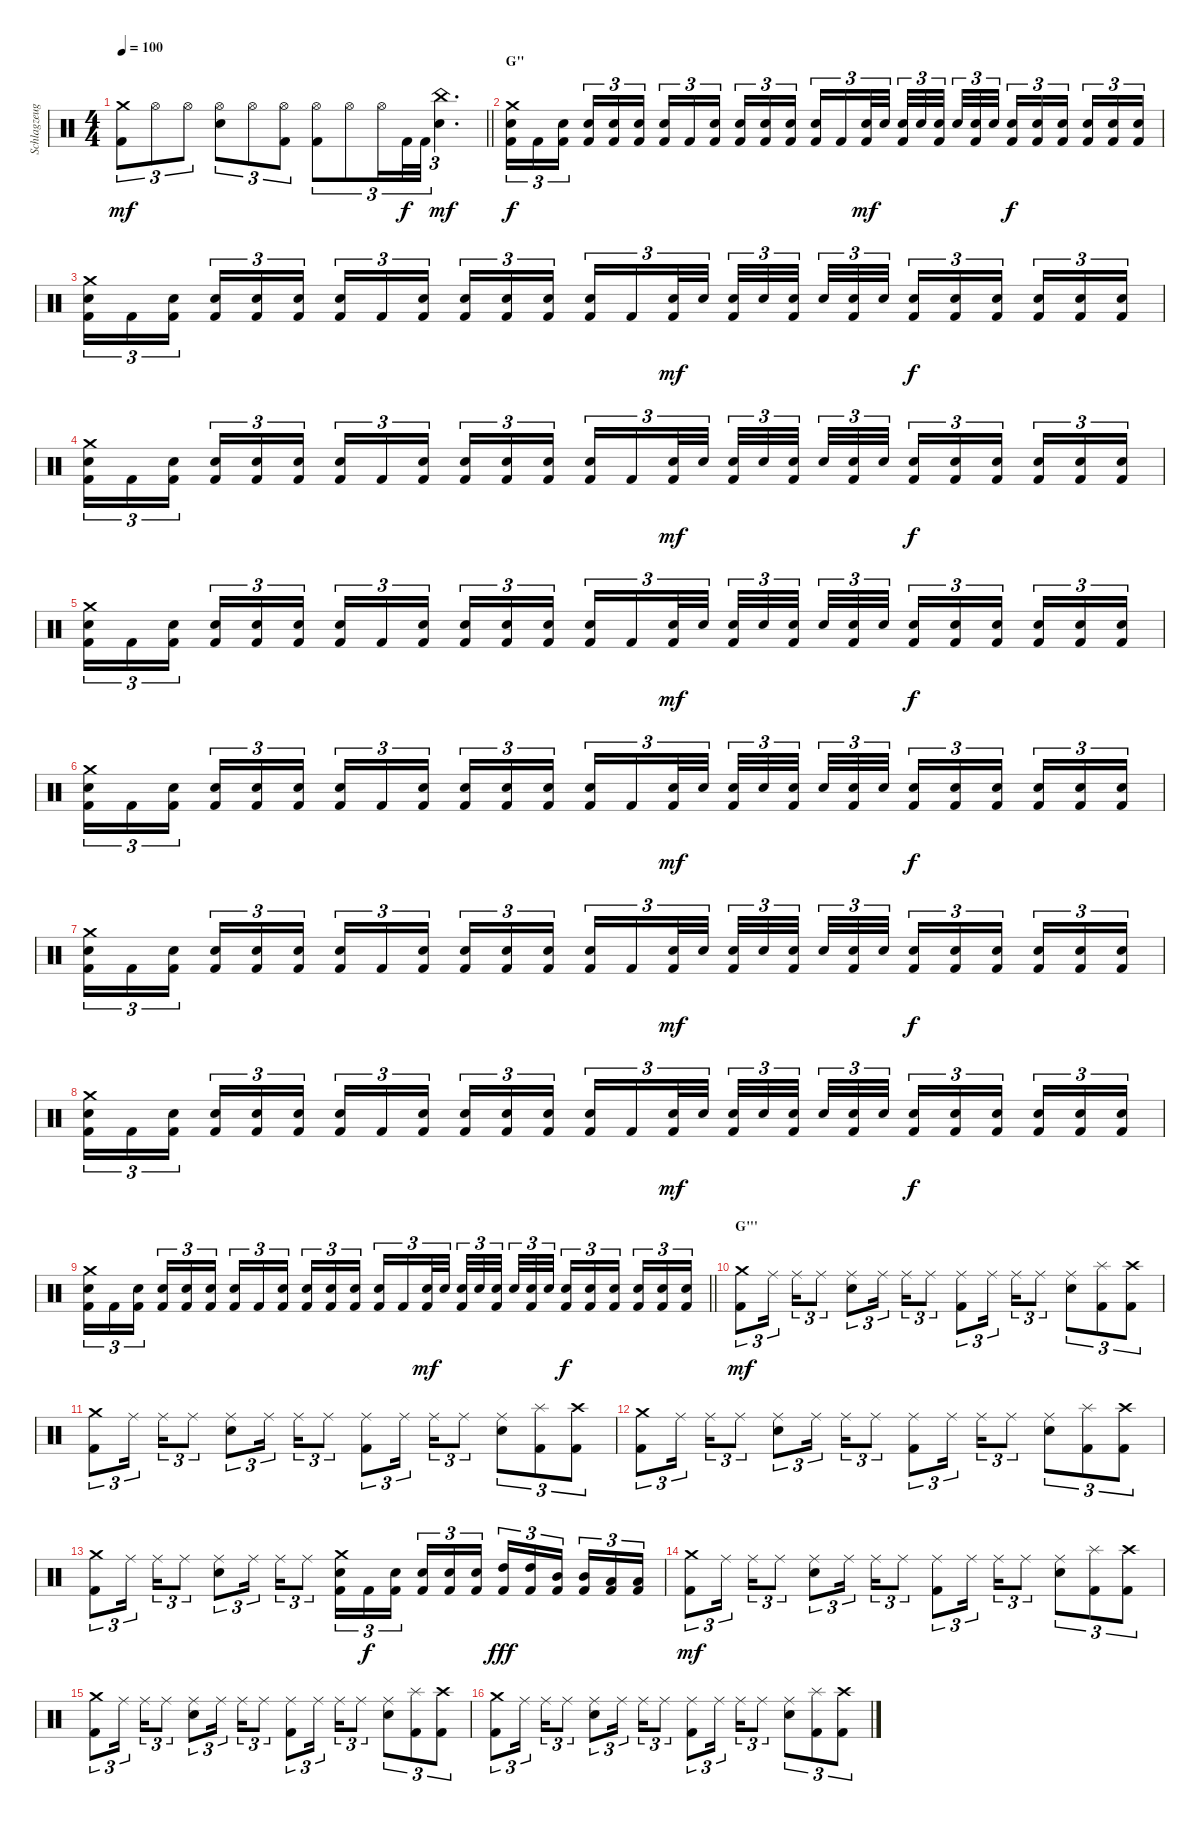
\track ("Schlagzeug" "Schlagzeug") {instrument percussion}
\staff {score}
\articulation defaults
\ts (4 4)
\tempo 100
\clef neutral
\barLineRight lightlight
\ks c
("Crash medium (hit)" "Kick (hit) 2").8{tu (3 2) dy mf} "Hi-Hat (open)".8{tu (3 2)} "Hi-Hat (open)".8{tu (3 2)} ("Hi-Hat (open)" "Electric Snare (hit)").8{tu (3 2)} "Hi-Hat (open)".8{tu (3 2)} ("Hi-Hat (open)" "Kick (hit) 2").8{tu (3 2)} ("Hi-Hat (open)" "Kick (hit) 2").8{tu (3 2)} "Hi-Hat (open)".8{tu (3 2)} "Hi-Hat (open)".16{tu (3 2)} "Kick (hit) 2".32{tu (3 2) dy f} "Kick (hit) 2".32{tu (3 2)} ("China (hit)" "Electric Snare (hit)").4{d tu (3 2) dy mf} |
\section ("" "G''")
("Crash medium (hit)" "Electric Snare (hit)" "Kick (hit) 2").16{tu (3 2) dy f} "Kick (hit) 2".16{tu (3 2)} ("Electric Snare (hit)" "Kick (hit) 2").16{tu (3 2) beam splitsecondary} ("Electric Snare (hit)" "Kick (hit) 2").16{tu (3 2)} ("Electric Snare (hit)" "Kick (hit) 2").16{tu (3 2)} ("Electric Snare (hit)" "Kick (hit) 2").16{tu (3 2)} ("Electric Snare (hit)" "Kick (hit) 2").16{tu (3 2)} "Kick (hit) 2".16{tu (3 2)} ("Electric Snare (hit)" "Kick (hit) 2").16{tu (3 2) beam splitsecondary} ("Electric Snare (hit)" "Kick (hit) 2").16{tu (3 2)} ("Electric Snare (hit)" "Kick (hit) 2").16{tu (3 2)} ("Electric Snare (hit)" "Kick (hit) 2").16{tu (3 2)} ("Electric Snare (hit)" "Kick (hit) 2").16{tu (3 2)} "Kick (hit) 2".16{tu (3 2)} ("Electric Snare (hit)" "Kick (hit) 2").32{tu (3 2) dy mf} "Electric Snare (hit)".32{tu (3 2) beam splitsecondary} ("Electric Snare (hit)" "Kick (hit) 2").32{tu (3 2)} "Electric Snare (hit)".32{tu (3 2)} ("Electric Snare (hit)" "Kick (hit) 2").32{tu (3 2) beam splitsecondary} "Electric Snare (hit)".32{tu (3 2)} ("Electric Snare (hit)" "Kick (hit) 2").32{tu (3 2)} "Electric Snare (hit)".32{tu (3 2)} ("Electric Snare (hit)" "Kick (hit) 2").16{tu (3 2) dy f} ("Electric Snare (hit)" "Kick (hit) 2").16{tu (3 2)} ("Electric Snare (hit)" "Kick (hit) 2").16{tu (3 2) beam splitsecondary} ("Electric Snare (hit)" "Kick (hit) 2").16{tu (3 2)} ("Electric Snare (hit)" "Kick (hit) 2").16{tu (3 2)} ("Electric Snare (hit)" "Kick (hit) 2").16{tu (3 2)} |
("Crash medium (hit)" "Electric Snare (hit)" "Kick (hit) 2").16{tu (3 2)} "Kick (hit) 2".16{tu (3 2)} ("Electric Snare (hit)" "Kick (hit) 2").16{tu (3 2) beam splitsecondary} ("Electric Snare (hit)" "Kick (hit) 2").16{tu (3 2)} ("Electric Snare (hit)" "Kick (hit) 2").16{tu (3 2)} ("Electric Snare (hit)" "Kick (hit) 2").16{tu (3 2)} ("Electric Snare (hit)" "Kick (hit) 2").16{tu (3 2)} "Kick (hit) 2".16{tu (3 2)} ("Electric Snare (hit)" "Kick (hit) 2").16{tu (3 2) beam splitsecondary} ("Electric Snare (hit)" "Kick (hit) 2").16{tu (3 2)} ("Electric Snare (hit)" "Kick (hit) 2").16{tu (3 2)} ("Electric Snare (hit)" "Kick (hit) 2").16{tu (3 2)} ("Electric Snare (hit)" "Kick (hit) 2").16{tu (3 2)} "Kick (hit) 2".16{tu (3 2)} ("Electric Snare (hit)" "Kick (hit) 2").32{tu (3 2) dy mf} "Electric Snare (hit)".32{tu (3 2) beam splitsecondary} ("Electric Snare (hit)" "Kick (hit) 2").32{tu (3 2)} "Electric Snare (hit)".32{tu (3 2)} ("Electric Snare (hit)" "Kick (hit) 2").32{tu (3 2) beam splitsecondary} "Electric Snare (hit)".32{tu (3 2)} ("Electric Snare (hit)" "Kick (hit) 2").32{tu (3 2)} "Electric Snare (hit)".32{tu (3 2)} ("Electric Snare (hit)" "Kick (hit) 2").16{tu (3 2) dy f} ("Electric Snare (hit)" "Kick (hit) 2").16{tu (3 2)} ("Electric Snare (hit)" "Kick (hit) 2").16{tu (3 2) beam splitsecondary} ("Electric Snare (hit)" "Kick (hit) 2").16{tu (3 2)} ("Electric Snare (hit)" "Kick (hit) 2").16{tu (3 2)} ("Electric Snare (hit)" "Kick (hit) 2").16{tu (3 2)} |
("Crash medium (hit)" "Electric Snare (hit)" "Kick (hit) 2").16{tu (3 2)} "Kick (hit) 2".16{tu (3 2)} ("Electric Snare (hit)" "Kick (hit) 2").16{tu (3 2) beam splitsecondary} ("Electric Snare (hit)" "Kick (hit) 2").16{tu (3 2)} ("Electric Snare (hit)" "Kick (hit) 2").16{tu (3 2)} ("Electric Snare (hit)" "Kick (hit) 2").16{tu (3 2)} ("Electric Snare (hit)" "Kick (hit) 2").16{tu (3 2)} "Kick (hit) 2".16{tu (3 2)} ("Electric Snare (hit)" "Kick (hit) 2").16{tu (3 2) beam splitsecondary} ("Electric Snare (hit)" "Kick (hit) 2").16{tu (3 2)} ("Electric Snare (hit)" "Kick (hit) 2").16{tu (3 2)} ("Electric Snare (hit)" "Kick (hit) 2").16{tu (3 2)} ("Electric Snare (hit)" "Kick (hit) 2").16{tu (3 2)} "Kick (hit) 2".16{tu (3 2)} ("Electric Snare (hit)" "Kick (hit) 2").32{tu (3 2) dy mf} "Electric Snare (hit)".32{tu (3 2) beam splitsecondary} ("Electric Snare (hit)" "Kick (hit) 2").32{tu (3 2)} "Electric Snare (hit)".32{tu (3 2)} ("Electric Snare (hit)" "Kick (hit) 2").32{tu (3 2) beam splitsecondary} "Electric Snare (hit)".32{tu (3 2)} ("Electric Snare (hit)" "Kick (hit) 2").32{tu (3 2)} "Electric Snare (hit)".32{tu (3 2)} ("Electric Snare (hit)" "Kick (hit) 2").16{tu (3 2) dy f} ("Electric Snare (hit)" "Kick (hit) 2").16{tu (3 2)} ("Electric Snare (hit)" "Kick (hit) 2").16{tu (3 2) beam splitsecondary} ("Electric Snare (hit)" "Kick (hit) 2").16{tu (3 2)} ("Electric Snare (hit)" "Kick (hit) 2").16{tu (3 2)} ("Electric Snare (hit)" "Kick (hit) 2").16{tu (3 2)} |
("Crash medium (hit)" "Electric Snare (hit)" "Kick (hit) 2").16{tu (3 2)} "Kick (hit) 2".16{tu (3 2)} ("Electric Snare (hit)" "Kick (hit) 2").16{tu (3 2) beam splitsecondary} ("Electric Snare (hit)" "Kick (hit) 2").16{tu (3 2)} ("Electric Snare (hit)" "Kick (hit) 2").16{tu (3 2)} ("Electric Snare (hit)" "Kick (hit) 2").16{tu (3 2)} ("Electric Snare (hit)" "Kick (hit) 2").16{tu (3 2)} "Kick (hit) 2".16{tu (3 2)} ("Electric Snare (hit)" "Kick (hit) 2").16{tu (3 2) beam splitsecondary} ("Electric Snare (hit)" "Kick (hit) 2").16{tu (3 2)} ("Electric Snare (hit)" "Kick (hit) 2").16{tu (3 2)} ("Electric Snare (hit)" "Kick (hit) 2").16{tu (3 2)} ("Electric Snare (hit)" "Kick (hit) 2").16{tu (3 2)} "Kick (hit) 2".16{tu (3 2)} ("Electric Snare (hit)" "Kick (hit) 2").32{tu (3 2) dy mf} "Electric Snare (hit)".32{tu (3 2) beam splitsecondary} ("Electric Snare (hit)" "Kick (hit) 2").32{tu (3 2)} "Electric Snare (hit)".32{tu (3 2)} ("Electric Snare (hit)" "Kick (hit) 2").32{tu (3 2) beam splitsecondary} "Electric Snare (hit)".32{tu (3 2)} ("Electric Snare (hit)" "Kick (hit) 2").32{tu (3 2)} "Electric Snare (hit)".32{tu (3 2)} ("Electric Snare (hit)" "Kick (hit) 2").16{tu (3 2) dy f} ("Electric Snare (hit)" "Kick (hit) 2").16{tu (3 2)} ("Electric Snare (hit)" "Kick (hit) 2").16{tu (3 2) beam splitsecondary} ("Electric Snare (hit)" "Kick (hit) 2").16{tu (3 2)} ("Electric Snare (hit)" "Kick (hit) 2").16{tu (3 2)} ("Electric Snare (hit)" "Kick (hit) 2").16{tu (3 2)} |
("Crash medium (hit)" "Electric Snare (hit)" "Kick (hit) 2").16{tu (3 2)} "Kick (hit) 2".16{tu (3 2)} ("Electric Snare (hit)" "Kick (hit) 2").16{tu (3 2) beam splitsecondary} ("Electric Snare (hit)" "Kick (hit) 2").16{tu (3 2)} ("Electric Snare (hit)" "Kick (hit) 2").16{tu (3 2)} ("Electric Snare (hit)" "Kick (hit) 2").16{tu (3 2)} ("Electric Snare (hit)" "Kick (hit) 2").16{tu (3 2)} "Kick (hit) 2".16{tu (3 2)} ("Electric Snare (hit)" "Kick (hit) 2").16{tu (3 2) beam splitsecondary} ("Electric Snare (hit)" "Kick (hit) 2").16{tu (3 2)} ("Electric Snare (hit)" "Kick (hit) 2").16{tu (3 2)} ("Electric Snare (hit)" "Kick (hit) 2").16{tu (3 2)} ("Electric Snare (hit)" "Kick (hit) 2").16{tu (3 2)} "Kick (hit) 2".16{tu (3 2)} ("Electric Snare (hit)" "Kick (hit) 2").32{tu (3 2) dy mf} "Electric Snare (hit)".32{tu (3 2) beam splitsecondary} ("Electric Snare (hit)" "Kick (hit) 2").32{tu (3 2)} "Electric Snare (hit)".32{tu (3 2)} ("Electric Snare (hit)" "Kick (hit) 2").32{tu (3 2) beam splitsecondary} "Electric Snare (hit)".32{tu (3 2)} ("Electric Snare (hit)" "Kick (hit) 2").32{tu (3 2)} "Electric Snare (hit)".32{tu (3 2)} ("Electric Snare (hit)" "Kick (hit) 2").16{tu (3 2) dy f} ("Electric Snare (hit)" "Kick (hit) 2").16{tu (3 2)} ("Electric Snare (hit)" "Kick (hit) 2").16{tu (3 2) beam splitsecondary} ("Electric Snare (hit)" "Kick (hit) 2").16{tu (3 2)} ("Electric Snare (hit)" "Kick (hit) 2").16{tu (3 2)} ("Electric Snare (hit)" "Kick (hit) 2").16{tu (3 2)} |
("Crash medium (hit)" "Electric Snare (hit)" "Kick (hit) 2").16{tu (3 2)} "Kick (hit) 2".16{tu (3 2)} ("Electric Snare (hit)" "Kick (hit) 2").16{tu (3 2) beam splitsecondary} ("Electric Snare (hit)" "Kick (hit) 2").16{tu (3 2)} ("Electric Snare (hit)" "Kick (hit) 2").16{tu (3 2)} ("Electric Snare (hit)" "Kick (hit) 2").16{tu (3 2)} ("Electric Snare (hit)" "Kick (hit) 2").16{tu (3 2)} "Kick (hit) 2".16{tu (3 2)} ("Electric Snare (hit)" "Kick (hit) 2").16{tu (3 2) beam splitsecondary} ("Electric Snare (hit)" "Kick (hit) 2").16{tu (3 2)} ("Electric Snare (hit)" "Kick (hit) 2").16{tu (3 2)} ("Electric Snare (hit)" "Kick (hit) 2").16{tu (3 2)} ("Electric Snare (hit)" "Kick (hit) 2").16{tu (3 2)} "Kick (hit) 2".16{tu (3 2)} ("Electric Snare (hit)" "Kick (hit) 2").32{tu (3 2) dy mf} "Electric Snare (hit)".32{tu (3 2) beam splitsecondary} ("Electric Snare (hit)" "Kick (hit) 2").32{tu (3 2)} "Electric Snare (hit)".32{tu (3 2)} ("Electric Snare (hit)" "Kick (hit) 2").32{tu (3 2) beam splitsecondary} "Electric Snare (hit)".32{tu (3 2)} ("Electric Snare (hit)" "Kick (hit) 2").32{tu (3 2)} "Electric Snare (hit)".32{tu (3 2)} ("Electric Snare (hit)" "Kick (hit) 2").16{tu (3 2) dy f} ("Electric Snare (hit)" "Kick (hit) 2").16{tu (3 2)} ("Electric Snare (hit)" "Kick (hit) 2").16{tu (3 2) beam splitsecondary} ("Electric Snare (hit)" "Kick (hit) 2").16{tu (3 2)} ("Electric Snare (hit)" "Kick (hit) 2").16{tu (3 2)} ("Electric Snare (hit)" "Kick (hit) 2").16{tu (3 2)} |
("Crash medium (hit)" "Electric Snare (hit)" "Kick (hit) 2").16{tu (3 2)} "Kick (hit) 2".16{tu (3 2)} ("Electric Snare (hit)" "Kick (hit) 2").16{tu (3 2) beam splitsecondary} ("Electric Snare (hit)" "Kick (hit) 2").16{tu (3 2)} ("Electric Snare (hit)" "Kick (hit) 2").16{tu (3 2)} ("Electric Snare (hit)" "Kick (hit) 2").16{tu (3 2)} ("Electric Snare (hit)" "Kick (hit) 2").16{tu (3 2)} "Kick (hit) 2".16{tu (3 2)} ("Electric Snare (hit)" "Kick (hit) 2").16{tu (3 2) beam splitsecondary} ("Electric Snare (hit)" "Kick (hit) 2").16{tu (3 2)} ("Electric Snare (hit)" "Kick (hit) 2").16{tu (3 2)} ("Electric Snare (hit)" "Kick (hit) 2").16{tu (3 2)} ("Electric Snare (hit)" "Kick (hit) 2").16{tu (3 2)} "Kick (hit) 2".16{tu (3 2)} ("Electric Snare (hit)" "Kick (hit) 2").32{tu (3 2) dy mf} "Electric Snare (hit)".32{tu (3 2) beam splitsecondary} ("Electric Snare (hit)" "Kick (hit) 2").32{tu (3 2)} "Electric Snare (hit)".32{tu (3 2)} ("Electric Snare (hit)" "Kick (hit) 2").32{tu (3 2) beam splitsecondary} "Electric Snare (hit)".32{tu (3 2)} ("Electric Snare (hit)" "Kick (hit) 2").32{tu (3 2)} "Electric Snare (hit)".32{tu (3 2)} ("Electric Snare (hit)" "Kick (hit) 2").16{tu (3 2) dy f} ("Electric Snare (hit)" "Kick (hit) 2").16{tu (3 2)} ("Electric Snare (hit)" "Kick (hit) 2").16{tu (3 2) beam splitsecondary} ("Electric Snare (hit)" "Kick (hit) 2").16{tu (3 2)} ("Electric Snare (hit)" "Kick (hit) 2").16{tu (3 2)} ("Electric Snare (hit)" "Kick (hit) 2").16{tu (3 2)} |
\barLineRight lightlight
("Crash medium (hit)" "Electric Snare (hit)" "Kick (hit) 2").16{tu (3 2)} "Kick (hit) 2".16{tu (3 2)} ("Electric Snare (hit)" "Kick (hit) 2").16{tu (3 2) beam splitsecondary} ("Electric Snare (hit)" "Kick (hit) 2").16{tu (3 2)} ("Electric Snare (hit)" "Kick (hit) 2").16{tu (3 2)} ("Electric Snare (hit)" "Kick (hit) 2").16{tu (3 2)} ("Electric Snare (hit)" "Kick (hit) 2").16{tu (3 2)} "Kick (hit) 2".16{tu (3 2)} ("Electric Snare (hit)" "Kick (hit) 2").16{tu (3 2) beam splitsecondary} ("Electric Snare (hit)" "Kick (hit) 2").16{tu (3 2)} ("Electric Snare (hit)" "Kick (hit) 2").16{tu (3 2)} ("Electric Snare (hit)" "Kick (hit) 2").16{tu (3 2)} ("Electric Snare (hit)" "Kick (hit) 2").16{tu (3 2)} "Kick (hit) 2".16{tu (3 2)} ("Electric Snare (hit)" "Kick (hit) 2").32{tu (3 2) dy mf} "Electric Snare (hit)".32{tu (3 2) beam splitsecondary} ("Electric Snare (hit)" "Kick (hit) 2").32{tu (3 2)} "Electric Snare (hit)".32{tu (3 2)} ("Electric Snare (hit)" "Kick (hit) 2").32{tu (3 2) beam splitsecondary} "Electric Snare (hit)".32{tu (3 2)} ("Electric Snare (hit)" "Kick (hit) 2").32{tu (3 2)} "Electric Snare (hit)".32{tu (3 2)} ("Electric Snare (hit)" "Kick (hit) 2").16{tu (3 2) dy f} ("Electric Snare (hit)" "Kick (hit) 2").16{tu (3 2)} ("Electric Snare (hit)" "Kick (hit) 2").16{tu (3 2) beam splitsecondary} ("Electric Snare (hit)" "Kick (hit) 2").16{tu (3 2)} ("Electric Snare (hit)" "Kick (hit) 2").16{tu (3 2)} ("Electric Snare (hit)" "Kick (hit) 2").16{tu (3 2)} |
\section ("" "G'''")
("Crash medium (hit)" "Kick (hit) 2").8{tu (3 2) dy mf} "Ride (middle)".16{tu (3 2) beam splitsecondary} "Ride (middle)".16{tu (3 2)} "Ride (middle)".8{tu (3 2)} ("Ride (middle)" "Electric Snare (hit)").8{tu (3 2)} "Ride (middle)".16{tu (3 2) beam splitsecondary} "Ride (middle)".16{tu (3 2)} "Ride (middle)".8{tu (3 2)} ("Ride (middle)" "Kick (hit) 2").8{tu (3 2)} "Ride (middle)".16{tu (3 2) beam splitsecondary} "Ride (middle)".16{tu (3 2)} "Ride (middle)".8{tu (3 2)} ("Ride (middle)" "Electric Snare (hit)").8{tu (3 2)} ("Splash (hit)" "Kick (hit) 2").8{tu (3 2)} ("Crash high (hit)" "Kick (hit) 2").8{tu (3 2)} |
("Crash medium (hit)" "Kick (hit) 2").8{tu (3 2)} "Ride (middle)".16{tu (3 2) beam splitsecondary} "Ride (middle)".16{tu (3 2)} "Ride (middle)".8{tu (3 2)} ("Ride (middle)" "Electric Snare (hit)").8{tu (3 2)} "Ride (middle)".16{tu (3 2) beam splitsecondary} "Ride (middle)".16{tu (3 2)} "Ride (middle)".8{tu (3 2)} ("Ride (middle)" "Kick (hit) 2").8{tu (3 2)} "Ride (middle)".16{tu (3 2) beam splitsecondary} "Ride (middle)".16{tu (3 2)} "Ride (middle)".8{tu (3 2)} ("Ride (middle)" "Electric Snare (hit)").8{tu (3 2)} ("Splash (hit)" "Kick (hit) 2").8{tu (3 2)} ("Crash high (hit)" "Kick (hit) 2").8{tu (3 2)} |
("Crash medium (hit)" "Kick (hit) 2").8{tu (3 2)} "Ride (middle)".16{tu (3 2) beam splitsecondary} "Ride (middle)".16{tu (3 2)} "Ride (middle)".8{tu (3 2)} ("Ride (middle)" "Electric Snare (hit)").8{tu (3 2)} "Ride (middle)".16{tu (3 2) beam splitsecondary} "Ride (middle)".16{tu (3 2)} "Ride (middle)".8{tu (3 2)} ("Ride (middle)" "Kick (hit) 2").8{tu (3 2)} "Ride (middle)".16{tu (3 2) beam splitsecondary} "Ride (middle)".16{tu (3 2)} "Ride (middle)".8{tu (3 2)} ("Ride (middle)" "Electric Snare (hit)").8{tu (3 2)} ("Splash (hit)" "Kick (hit) 2").8{tu (3 2)} ("Crash high (hit)" "Kick (hit) 2").8{tu (3 2)} |
("Crash medium (hit)" "Kick (hit) 2").8{tu (3 2)} "Ride (middle)".16{tu (3 2) beam splitsecondary} "Ride (middle)".16{tu (3 2)} "Ride (middle)".8{tu (3 2)} ("Ride (middle)" "Electric Snare (hit)").8{tu (3 2)} "Ride (middle)".16{tu (3 2) beam splitsecondary} "Ride (middle)".16{tu (3 2)} "Ride (middle)".8{tu (3 2)} ("Crash medium (hit)" "Electric Snare (hit)" "Kick (hit) 2").16{tu (3 2)} "Kick (hit) 2".16{tu (3 2) dy f} ("Electric Snare (hit)" "Kick (hit) 2").16{tu (3 2) beam splitsecondary} ("Electric Snare (hit)" "Kick (hit) 2").16{tu (3 2)} ("Electric Snare (hit)" "Kick (hit) 2").16{tu (3 2)} ("Electric Snare (hit)" "Kick (hit) 2").16{tu (3 2)} ("High Tom (hit)" "Kick (hit) 2").16{tu (3 2) dy fff} ("High Tom (hit)" "Kick (hit) 2").16{tu (3 2)} ("Mid Tom (hit)" "Kick (hit) 2").16{tu (3 2) beam splitsecondary} ("Mid Tom (hit)" "Kick (hit) 2").16{tu (3 2)} ("Low Tom (hit)" "Kick (hit) 2").16{tu (3 2)} ("Low Tom (hit)" "Kick (hit) 2").16{tu (3 2)} |
("Crash medium (hit)" "Kick (hit) 2").8{tu (3 2) dy mf} "Ride (middle)".16{tu (3 2) beam splitsecondary} "Ride (middle)".16{tu (3 2)} "Ride (middle)".8{tu (3 2)} ("Ride (middle)" "Electric Snare (hit)").8{tu (3 2)} "Ride (middle)".16{tu (3 2) beam splitsecondary} "Ride (middle)".16{tu (3 2)} "Ride (middle)".8{tu (3 2)} ("Ride (middle)" "Kick (hit) 2").8{tu (3 2)} "Ride (middle)".16{tu (3 2) beam splitsecondary} "Ride (middle)".16{tu (3 2)} "Ride (middle)".8{tu (3 2)} ("Ride (middle)" "Electric Snare (hit)").8{tu (3 2)} ("Splash (hit)" "Kick (hit) 2").8{tu (3 2)} ("Crash high (hit)" "Kick (hit) 2").8{tu (3 2)} |
("Crash medium (hit)" "Kick (hit) 2").8{tu (3 2)} "Ride (middle)".16{tu (3 2) beam splitsecondary} "Ride (middle)".16{tu (3 2)} "Ride (middle)".8{tu (3 2)} ("Ride (middle)" "Electric Snare (hit)").8{tu (3 2)} "Ride (middle)".16{tu (3 2) beam splitsecondary} "Ride (middle)".16{tu (3 2)} "Ride (middle)".8{tu (3 2)} ("Ride (middle)" "Kick (hit) 2").8{tu (3 2)} "Ride (middle)".16{tu (3 2) beam splitsecondary} "Ride (middle)".16{tu (3 2)} "Ride (middle)".8{tu (3 2)} ("Ride (middle)" "Electric Snare (hit)").8{tu (3 2)} ("Splash (hit)" "Kick (hit) 2").8{tu (3 2)} ("Crash high (hit)" "Kick (hit) 2").8{tu (3 2)} |
("Crash medium (hit)" "Kick (hit) 2").8{tu (3 2)} "Ride (middle)".16{tu (3 2) beam splitsecondary} "Ride (middle)".16{tu (3 2)} "Ride (middle)".8{tu (3 2)} ("Ride (middle)" "Electric Snare (hit)").8{tu (3 2)} "Ride (middle)".16{tu (3 2) beam splitsecondary} "Ride (middle)".16{tu (3 2)} "Ride (middle)".8{tu (3 2)} ("Ride (middle)" "Kick (hit) 2").8{tu (3 2)} "Ride (middle)".16{tu (3 2) beam splitsecondary} "Ride (middle)".16{tu (3 2)} "Ride (middle)".8{tu (3 2)} ("Ride (middle)" "Electric Snare (hit)").8{tu (3 2)} ("Splash (hit)" "Kick (hit) 2").8{tu (3 2)} ("Crash high (hit)" "Kick (hit) 2").8{tu (3 2)}
